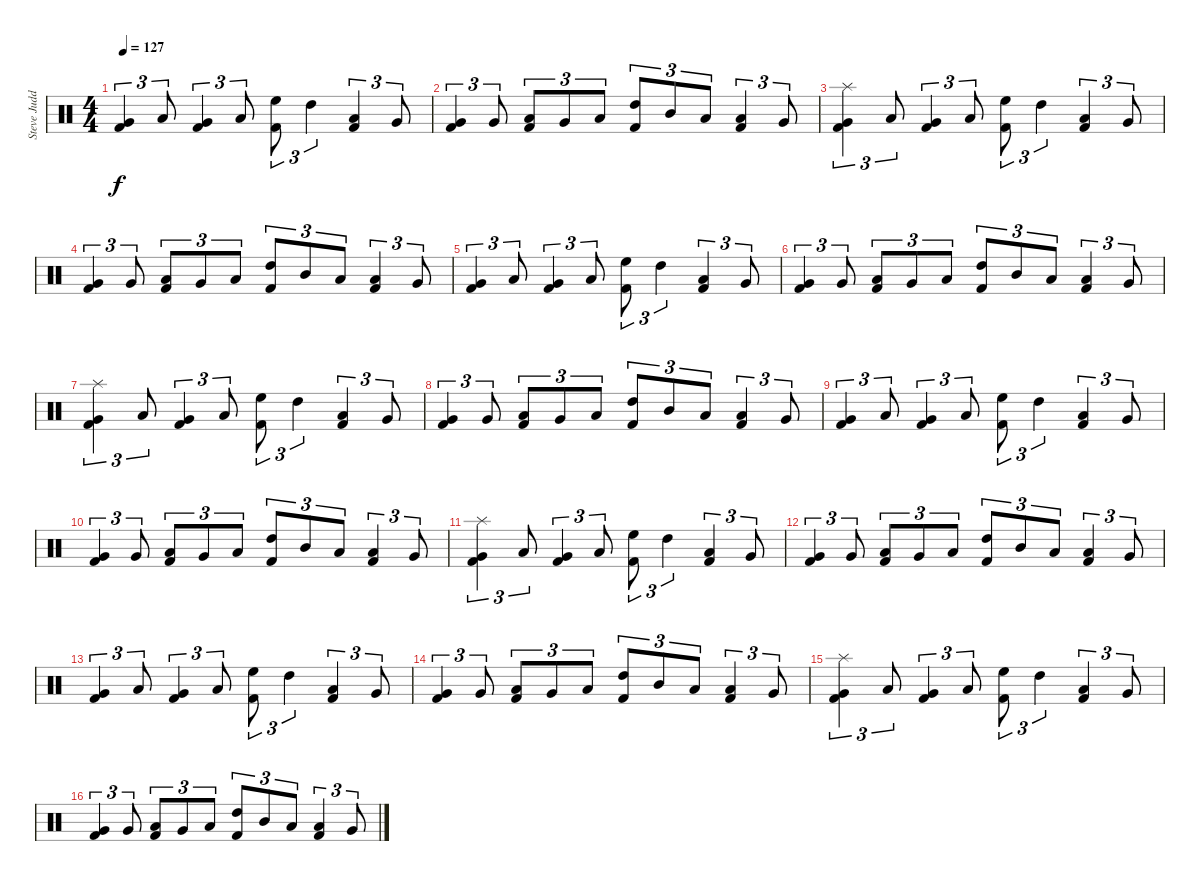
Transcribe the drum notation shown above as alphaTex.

\track ("Steve Judd - Drums" "Steve Judd") {mute instrument percussion}
\staff {score}
\articulation defaults
\ts (4 4)
\tempo 127
\clef neutral
\ks c
("Very Low Tom (hit)" "Kick (hit) 2").4{tu (3 2) dy f} "Low Floor Tom (hit)".8{tu (3 2)} ("Very Low Tom (hit)" "Kick (hit) 2").4{tu (3 2)} "Low Floor Tom (hit)".8{tu (3 2)} ("High Floor Tom (hit)" "Kick (hit) 2").8{tu (3 2)} "High Tom (hit)".4{tu (3 2)} ("Low Floor Tom (hit)" "Kick (hit) 2").4{tu (3 2)} "Very Low Tom (hit)".8{tu (3 2)} |
("Very Low Tom (hit)" "Kick (hit) 2").4{tu (3 2)} "Very Low Tom (hit)".8{tu (3 2)} ("Low Floor Tom (hit)" "Kick (hit) 2").8{tu (3 2)} "Very Low Tom (hit)".8{tu (3 2)} "Low Tom (hit)".8{tu (3 2)} ("High Tom (hit)" "Kick (hit) 2").8{tu (3 2)} "Mid Tom (hit)".8{tu (3 2)} "Low Tom (hit)".8{tu (3 2)} ("Low Floor Tom (hit)" "Kick (hit) 2").4{tu (3 2)} "Very Low Tom (hit)".8{tu (3 2)} |
("Very Low Tom (hit)" "Splash (hit)" "Kick (hit) 2").4{tu (3 2)} "Low Floor Tom (hit)".8{tu (3 2)} ("Very Low Tom (hit)" "Kick (hit) 2").4{tu (3 2)} "Low Floor Tom (hit)".8{tu (3 2)} ("High Floor Tom (hit)" "Kick (hit) 2").8{tu (3 2)} "High Tom (hit)".4{tu (3 2)} ("Low Floor Tom (hit)" "Kick (hit) 2").4{tu (3 2)} "Very Low Tom (hit)".8{tu (3 2)} |
("Very Low Tom (hit)" "Kick (hit) 2").4{tu (3 2)} "Very Low Tom (hit)".8{tu (3 2)} ("Low Floor Tom (hit)" "Kick (hit) 2").8{tu (3 2)} "Very Low Tom (hit)".8{tu (3 2)} "Low Tom (hit)".8{tu (3 2)} ("High Tom (hit)" "Kick (hit) 2").8{tu (3 2)} "Mid Tom (hit)".8{tu (3 2)} "Low Tom (hit)".8{tu (3 2)} ("Low Floor Tom (hit)" "Kick (hit) 2").4{tu (3 2)} "Very Low Tom (hit)".8{tu (3 2)} |
("Very Low Tom (hit)" "Kick (hit) 2").4{tu (3 2)} "Low Floor Tom (hit)".8{tu (3 2)} ("Very Low Tom (hit)" "Kick (hit) 2").4{tu (3 2)} "Low Floor Tom (hit)".8{tu (3 2)} ("High Floor Tom (hit)" "Kick (hit) 2").8{tu (3 2)} "High Tom (hit)".4{tu (3 2)} ("Low Floor Tom (hit)" "Kick (hit) 2").4{tu (3 2)} "Very Low Tom (hit)".8{tu (3 2)} |
("Very Low Tom (hit)" "Kick (hit) 2").4{tu (3 2)} "Very Low Tom (hit)".8{tu (3 2)} ("Low Floor Tom (hit)" "Kick (hit) 2").8{tu (3 2)} "Very Low Tom (hit)".8{tu (3 2)} "Low Tom (hit)".8{tu (3 2)} ("High Tom (hit)" "Kick (hit) 2").8{tu (3 2)} "Mid Tom (hit)".8{tu (3 2)} "Low Tom (hit)".8{tu (3 2)} ("Low Floor Tom (hit)" "Kick (hit) 2").4{tu (3 2)} "Very Low Tom (hit)".8{tu (3 2)} |
("Very Low Tom (hit)" "Splash (hit)" "Kick (hit) 2").4{tu (3 2)} "Low Floor Tom (hit)".8{tu (3 2)} ("Very Low Tom (hit)" "Kick (hit) 2").4{tu (3 2)} "Low Floor Tom (hit)".8{tu (3 2)} ("High Floor Tom (hit)" "Kick (hit) 2").8{tu (3 2)} "High Tom (hit)".4{tu (3 2)} ("Low Floor Tom (hit)" "Kick (hit) 2").4{tu (3 2)} "Very Low Tom (hit)".8{tu (3 2)} |
("Very Low Tom (hit)" "Kick (hit) 2").4{tu (3 2)} "Very Low Tom (hit)".8{tu (3 2)} ("Low Floor Tom (hit)" "Kick (hit) 2").8{tu (3 2)} "Very Low Tom (hit)".8{tu (3 2)} "Low Tom (hit)".8{tu (3 2)} ("High Tom (hit)" "Kick (hit) 2").8{tu (3 2)} "Mid Tom (hit)".8{tu (3 2)} "Low Tom (hit)".8{tu (3 2)} ("Low Floor Tom (hit)" "Kick (hit) 2").4{tu (3 2)} "Very Low Tom (hit)".8{tu (3 2)} |
("Very Low Tom (hit)" "Kick (hit) 2").4{tu (3 2)} "Low Floor Tom (hit)".8{tu (3 2)} ("Very Low Tom (hit)" "Kick (hit) 2").4{tu (3 2)} "Low Floor Tom (hit)".8{tu (3 2)} ("High Floor Tom (hit)" "Kick (hit) 2").8{tu (3 2)} "High Tom (hit)".4{tu (3 2)} ("Low Floor Tom (hit)" "Kick (hit) 2").4{tu (3 2)} "Very Low Tom (hit)".8{tu (3 2)} |
("Very Low Tom (hit)" "Kick (hit) 2").4{tu (3 2)} "Very Low Tom (hit)".8{tu (3 2)} ("Low Floor Tom (hit)" "Kick (hit) 2").8{tu (3 2)} "Very Low Tom (hit)".8{tu (3 2)} "Low Tom (hit)".8{tu (3 2)} ("High Tom (hit)" "Kick (hit) 2").8{tu (3 2)} "Mid Tom (hit)".8{tu (3 2)} "Low Tom (hit)".8{tu (3 2)} ("Low Floor Tom (hit)" "Kick (hit) 2").4{tu (3 2)} "Very Low Tom (hit)".8{tu (3 2)} |
("Very Low Tom (hit)" "Splash (hit)" "Kick (hit) 2").4{tu (3 2)} "Low Floor Tom (hit)".8{tu (3 2)} ("Very Low Tom (hit)" "Kick (hit) 2").4{tu (3 2)} "Low Floor Tom (hit)".8{tu (3 2)} ("High Floor Tom (hit)" "Kick (hit) 2").8{tu (3 2)} "High Tom (hit)".4{tu (3 2)} ("Low Floor Tom (hit)" "Kick (hit) 2").4{tu (3 2)} "Very Low Tom (hit)".8{tu (3 2)} |
("Very Low Tom (hit)" "Kick (hit) 2").4{tu (3 2)} "Very Low Tom (hit)".8{tu (3 2)} ("Low Floor Tom (hit)" "Kick (hit) 2").8{tu (3 2)} "Very Low Tom (hit)".8{tu (3 2)} "Low Tom (hit)".8{tu (3 2)} ("High Tom (hit)" "Kick (hit) 2").8{tu (3 2)} "Mid Tom (hit)".8{tu (3 2)} "Low Tom (hit)".8{tu (3 2)} ("Low Floor Tom (hit)" "Kick (hit) 2").4{tu (3 2)} "Very Low Tom (hit)".8{tu (3 2)} |
("Very Low Tom (hit)" "Kick (hit) 2").4{tu (3 2)} "Low Floor Tom (hit)".8{tu (3 2)} ("Very Low Tom (hit)" "Kick (hit) 2").4{tu (3 2)} "Low Floor Tom (hit)".8{tu (3 2)} ("High Floor Tom (hit)" "Kick (hit) 2").8{tu (3 2)} "High Tom (hit)".4{tu (3 2)} ("Low Floor Tom (hit)" "Kick (hit) 2").4{tu (3 2)} "Very Low Tom (hit)".8{tu (3 2)} |
("Very Low Tom (hit)" "Kick (hit) 2").4{tu (3 2)} "Very Low Tom (hit)".8{tu (3 2)} ("Low Floor Tom (hit)" "Kick (hit) 2").8{tu (3 2)} "Very Low Tom (hit)".8{tu (3 2)} "Low Tom (hit)".8{tu (3 2)} ("High Tom (hit)" "Kick (hit) 2").8{tu (3 2)} "Mid Tom (hit)".8{tu (3 2)} "Low Tom (hit)".8{tu (3 2)} ("Low Floor Tom (hit)" "Kick (hit) 2").4{tu (3 2)} "Very Low Tom (hit)".8{tu (3 2)} |
("Very Low Tom (hit)" "Splash (hit)" "Kick (hit) 2").4{tu (3 2)} "Low Floor Tom (hit)".8{tu (3 2)} ("Very Low Tom (hit)" "Kick (hit) 2").4{tu (3 2)} "Low Floor Tom (hit)".8{tu (3 2)} ("High Floor Tom (hit)" "Kick (hit) 2").8{tu (3 2)} "High Tom (hit)".4{tu (3 2)} ("Low Floor Tom (hit)" "Kick (hit) 2").4{tu (3 2)} "Very Low Tom (hit)".8{tu (3 2)} |
("Very Low Tom (hit)" "Kick (hit) 2").4{tu (3 2)} "Very Low Tom (hit)".8{tu (3 2)} ("Low Floor Tom (hit)" "Kick (hit) 2").8{tu (3 2)} "Very Low Tom (hit)".8{tu (3 2)} "Low Tom (hit)".8{tu (3 2)} ("High Tom (hit)" "Kick (hit) 2").8{tu (3 2)} "Mid Tom (hit)".8{tu (3 2)} "Low Tom (hit)".8{tu (3 2)} ("Low Floor Tom (hit)" "Kick (hit) 2").4{tu (3 2)} "Very Low Tom (hit)".8{tu (3 2)}
